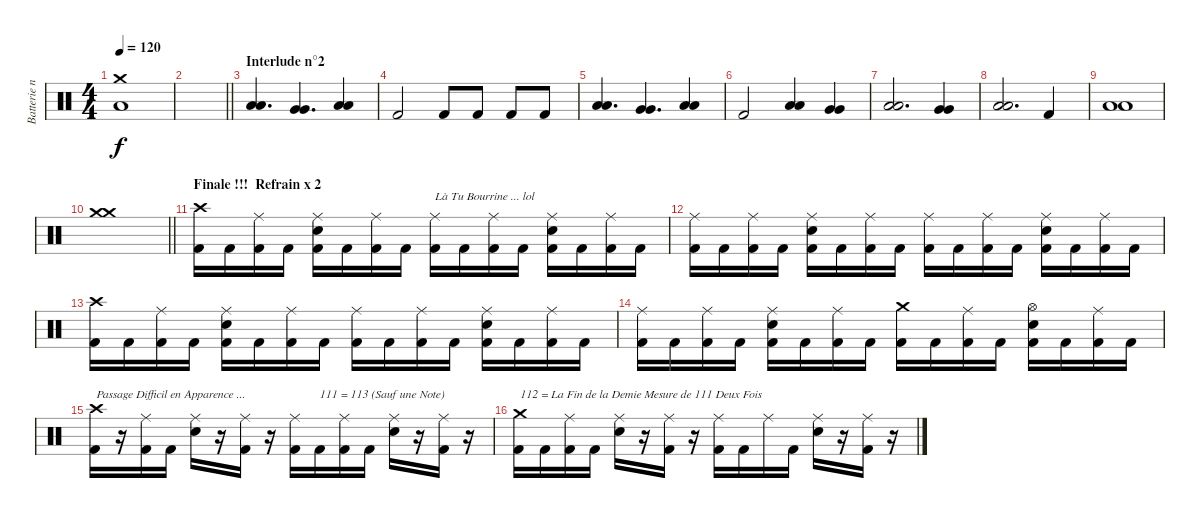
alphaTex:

\track ("Batterie n°3" "Batterie n") {instrument percussion}
\staff {score}
\articulation defaults
\ts (4 4)
\tempo 120
\clef neutral
\ks c
("Crash medium (hit)" "Low Floor Tom (hit)").1{dy f} |
\barLineRight lightlight
|
\section ("" "Interlude n°2")
("Low Tom (hit)" "Low Tom (hit)").4{d} ("Very Low Tom (hit)" "Very Low Tom (hit)").4{d} ("Low Floor Tom (hit)" "Low Floor Tom (hit)").4 |
"Kick (hit) 2".2 "Kick (hit) 2".8 "Kick (hit) 2".8 "Kick (hit) 2".8 "Kick (hit) 2".8 |
("Low Tom (hit)" "Low Tom (hit)").4{d} ("Very Low Tom (hit)" "Very Low Tom (hit)").4{d} ("Low Floor Tom (hit)" "Low Floor Tom (hit)").4 |
"Kick (hit) 2".2 ("Low Floor Tom (hit)" "Low Floor Tom (hit)").4 ("Very Low Tom (hit)" "Very Low Tom (hit)").4 |
("Low Tom (hit)" "Low Tom (hit)").2{d} ("Very Low Tom (hit)" "Very Low Tom (hit)").4 |
("Low Floor Tom (hit)" "Low Floor Tom (hit)").2{d} "Kick (hit) 2".4 |
("Low Floor Tom (hit)" "Low Floor Tom (hit)").1 |
\barLineRight lightlight
("Crash medium (hit)" "Crash medium (hit)").1 |
\section ("" "Finale !!!  Refrain x 2")
("Crash high (hit)" "Kick (hit) 2").16 "Kick (hit) 2".16 ("Ride (middle)" "Kick (hit) 2").16 "Kick (hit) 2".16 ("Ride (middle)" "Snare (hit) 2" "Kick (hit) 2").16 "Kick (hit) 2".16 ("Ride (middle)" "Kick (hit) 2").16 "Kick (hit) 2".16 ("Ride (middle)" "Kick (hit) 2").16{txt "Là Tu Bourrine ... lol"} "Kick (hit) 2".16 ("Ride (middle)" "Kick (hit) 2").16 "Kick (hit) 2".16 ("Ride (middle)" "Snare (hit) 2" "Kick (hit) 2").16 "Kick (hit) 2".16 ("Ride (middle)" "Kick (hit) 2").16 "Kick (hit) 2".16 |
("Ride (middle)" "Kick (hit) 2").16 "Kick (hit) 2".16 ("Ride (middle)" "Kick (hit) 2").16 "Kick (hit) 2".16 ("Ride (middle)" "Snare (hit) 2" "Kick (hit) 2").16 "Kick (hit) 2".16 ("Ride (middle)" "Kick (hit) 2").16 "Kick (hit) 2".16 ("Ride (middle)" "Kick (hit) 2").16 "Kick (hit) 2".16 ("Ride (middle)" "Kick (hit) 2").16 "Kick (hit) 2".16 ("Ride (middle)" "Snare (hit) 2" "Kick (hit) 2").16 "Kick (hit) 2".16 ("Ride (middle)" "Kick (hit) 2").16 "Kick (hit) 2".16 |
("Crash high (hit)" "Kick (hit) 2").16 "Kick (hit) 2".16 ("Ride (middle)" "Kick (hit) 2").16 "Kick (hit) 2".16 ("Ride (middle)" "Snare (hit) 2" "Kick (hit) 2").16 "Kick (hit) 2".16 ("Ride (middle)" "Kick (hit) 2").16 "Kick (hit) 2".16 ("Ride (middle)" "Kick (hit) 2").16 "Kick (hit) 2".16 ("Ride (middle)" "Kick (hit) 2").16 "Kick (hit) 2".16 ("Ride (middle)" "Snare (hit) 2" "Kick (hit) 2").16 "Kick (hit) 2".16 ("Ride (middle)" "Kick (hit) 2").16 "Kick (hit) 2".16 |
("Ride (middle)" "Kick (hit) 2").16 "Kick (hit) 2".16 ("Ride (middle)" "Kick (hit) 2").16 "Kick (hit) 2".16 ("Ride (middle)" "Snare (hit) 2" "Kick (hit) 2").16 "Kick (hit) 2".16 ("Ride (middle)" "Kick (hit) 2").16 "Kick (hit) 2".16 ("Crash medium (hit)" "Kick (hit) 2").16 "Kick (hit) 2".16 ("Ride (middle)" "Kick (hit) 2").16 "Kick (hit) 2".16 ("Hi-Hat (open)" "Snare (hit) 2" "Kick (hit) 2").16 "Kick (hit) 2".16 ("Ride (middle)" "Kick (hit) 2").16 "Kick (hit) 2".16 |
("Crash high (hit)" "Kick (hit) 2").16{txt "Passage Difficil en Apparence ... "} r.16 ("Ride (middle)" "Kick (hit) 2").16 "Kick (hit) 2".16 ("Ride (middle)" "Snare (hit) 2").16 r.16 ("Ride (middle)" "Kick (hit) 2").16 r.16 ("Ride (middle)" "Kick (hit) 2").16 "Kick (hit) 2".16{txt "111 = 113 (Sauf une Note)"} ("Ride (middle)" "Kick (hit) 2").16 "Kick (hit) 2".16 ("Ride (middle)" "Snare (hit) 2").16 r.16 ("Ride (middle)" "Kick (hit) 2").16 r.16 |
("Crash medium (hit)" "Kick (hit) 2").16{txt "112 = La Fin de la Demie Mesure de 111 Deux Fois"} "Kick (hit) 2".16 ("Ride (middle)" "Kick (hit) 2").16 "Kick (hit) 2".16 ("Ride (middle)" "Snare (hit) 2").16 r.16 ("Ride (middle)" "Kick (hit) 2").16 r.16 ("Ride (middle)" "Kick (hit) 2").16 "Kick (hit) 2".16 "Ride (middle)".16 "Kick (hit) 2".16 ("Ride (middle)" "Snare (hit) 2").16 r.16 ("Ride (middle)" "Kick (hit) 2").16 r.16
